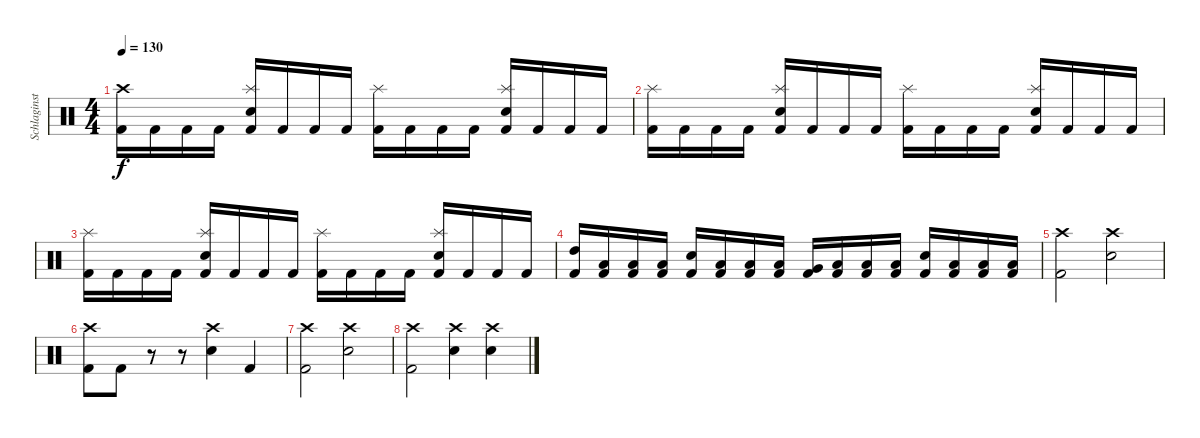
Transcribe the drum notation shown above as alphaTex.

\track ("Schlaginstrumente - Auswahl" "Schlaginst") {instrument percussion}
\staff {score}
\articulation defaults
\ts (4 4)
\tempo 130
\clef neutral
\ks c
("Crash high (hit)" "Kick (hit) 2").16{dy f} "Kick (hit) 2".16 "Kick (hit) 2".16 "Kick (hit) 2".16 ("Splash (hit)" "Snare (hit) 2" "Kick (hit) 2").16 "Kick (hit) 2".16 "Kick (hit) 2".16 "Kick (hit) 2".16 ("Splash (hit)" "Kick (hit) 2").16 "Kick (hit) 2".16 "Kick (hit) 2".16 "Kick (hit) 2".16 ("Splash (hit)" "Snare (hit) 2" "Kick (hit) 2").16 "Kick (hit) 2".16 "Kick (hit) 2".16 "Kick (hit) 2".16 |
("Splash (hit)" "Kick (hit) 2").16 "Kick (hit) 2".16 "Kick (hit) 2".16 "Kick (hit) 2".16 ("Splash (hit)" "Snare (hit) 2" "Kick (hit) 2").16 "Kick (hit) 2".16 "Kick (hit) 2".16 "Kick (hit) 2".16 ("Splash (hit)" "Kick (hit) 2").16 "Kick (hit) 2".16 "Kick (hit) 2".16 "Kick (hit) 2".16 ("Splash (hit)" "Snare (hit) 2" "Kick (hit) 2").16 "Kick (hit) 2".16 "Kick (hit) 2".16 "Kick (hit) 2".16 |
("Splash (hit)" "Kick (hit) 2").16 "Kick (hit) 2".16 "Kick (hit) 2".16 "Kick (hit) 2".16 ("Splash (hit)" "Snare (hit) 2" "Kick (hit) 2").16 "Kick (hit) 2".16 "Kick (hit) 2".16 "Kick (hit) 2".16 ("Splash (hit)" "Kick (hit) 2").16 "Kick (hit) 2".16 "Kick (hit) 2".16 "Kick (hit) 2".16 ("Splash (hit)" "Snare (hit) 2" "Kick (hit) 2").16 "Kick (hit) 2".16 "Kick (hit) 2".16 "Kick (hit) 2".16 |
("High Tom (hit)" "Kick (hit) 2").16 ("Low Floor Tom (hit)" "Kick (hit) 2").16 ("Low Floor Tom (hit)" "Kick (hit) 2").16 ("Low Floor Tom (hit)" "Kick (hit) 2").16 ("Snare (hit) 2" "Kick (hit) 2").16 ("Low Floor Tom (hit)" "Kick (hit) 2").16 ("Low Floor Tom (hit)" "Kick (hit) 2").16 ("Low Floor Tom (hit)" "Kick (hit) 2").16 ("Very Low Tom (hit)" "Kick (hit) 2").16 ("Low Floor Tom (hit)" "Kick (hit) 2").16 ("Low Floor Tom (hit)" "Kick (hit) 2").16 ("Low Floor Tom (hit)" "Kick (hit) 2").16 ("Snare (hit) 2" "Kick (hit) 2").16 ("Low Floor Tom (hit)" "Kick (hit) 2").16 ("Low Floor Tom (hit)" "Kick (hit) 2").16 ("Low Floor Tom (hit)" "Kick (hit) 2").16 |
("Crash high (hit)" "Kick (hit) 2").2 ("Crash high (hit)" "Snare (hit) 2").2 |
("Crash high (hit)" "Kick (hit) 2").8 "Kick (hit) 2".8 r.8 r.8 ("Crash high (hit)" "Snare (hit) 2").4 "Kick (hit) 2".4 |
("Crash high (hit)" "Kick (hit) 2").2 ("Crash high (hit)" "Snare (hit) 2").2 |
("Crash high (hit)" "Kick (hit) 2").2 ("Crash high (hit)" "Snare (hit) 2").4 ("Crash high (hit)" "Snare (hit) 2").4
